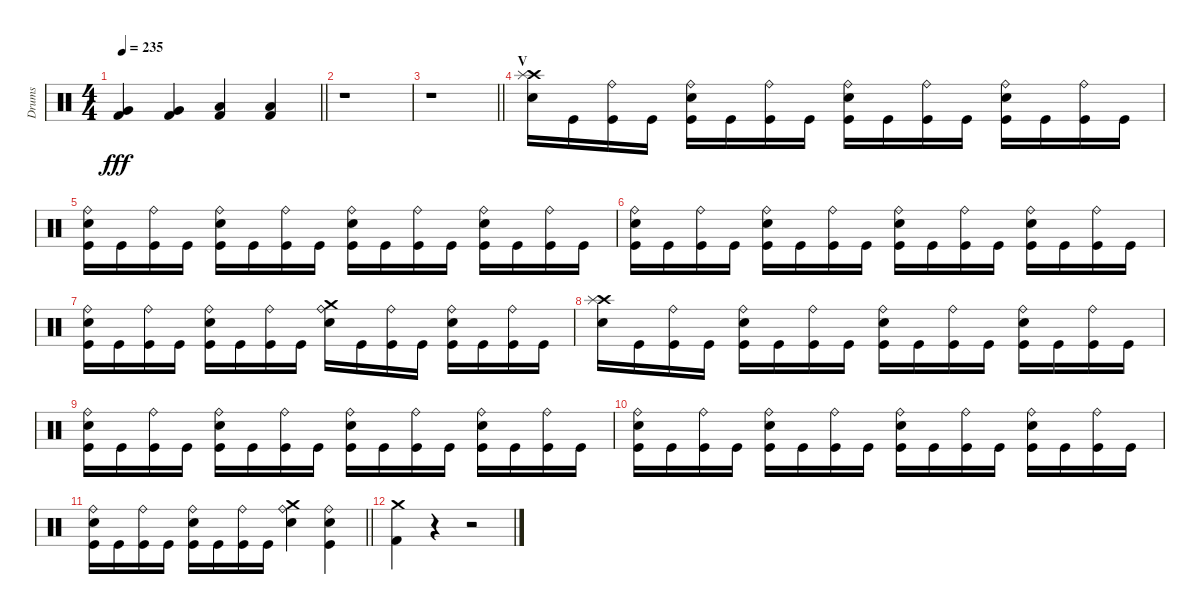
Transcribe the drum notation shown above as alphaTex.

\track ("Drums" "Drums") {instrument percussion}
\staff {score}
\articulation defaults
\ts (4 4)
\tempo 235
\clef neutral
\barLineRight lightlight
\ks c
("Very Low Tom (hit)" "Kick (hit) 2").4{dy fff} ("Very Low Tom (hit)" "Kick (hit) 2").4 ("Low Floor Tom (hit)" "Kick (hit) 2").4 ("Low Floor Tom (hit)" "Kick (hit) 2").4 |
r.1 |
\barLineRight lightlight
r.1 |
\section ("" "V")
("Crash high (hit)" "Electric Snare (hit)" "Splash (hit)").16 "Kick (hit)".16 ("Kick (hit)" "Ride (bell)").16 "Kick (hit)".16 ("Kick (hit)" "Electric Snare (hit)" "Ride (bell)").16 "Kick (hit)".16 ("Kick (hit)" "Ride (bell)").16 "Kick (hit)".16 ("Kick (hit)" "Electric Snare (hit)" "Ride (bell)").16 "Kick (hit)".16 ("Kick (hit)" "Ride (bell)").16 "Kick (hit)".16 ("Kick (hit)" "Electric Snare (hit)" "Ride (bell)").16 "Kick (hit)".16 ("Kick (hit)" "Ride (bell)").16 "Kick (hit)".16 |
("Kick (hit)" "Electric Snare (hit)" "Ride (bell)").16 "Kick (hit)".16 ("Kick (hit)" "Ride (bell)").16 "Kick (hit)".16 ("Kick (hit)" "Electric Snare (hit)" "Ride (bell)").16 "Kick (hit)".16 ("Kick (hit)" "Ride (bell)").16 "Kick (hit)".16 ("Kick (hit)" "Electric Snare (hit)" "Ride (bell)").16 "Kick (hit)".16 ("Kick (hit)" "Ride (bell)").16 "Kick (hit)".16 ("Kick (hit)" "Electric Snare (hit)" "Ride (bell)").16 "Kick (hit)".16 ("Kick (hit)" "Ride (bell)").16 "Kick (hit)".16 |
("Kick (hit)" "Electric Snare (hit)" "Ride (bell)").16 "Kick (hit)".16 ("Kick (hit)" "Ride (bell)").16 "Kick (hit)".16 ("Kick (hit)" "Electric Snare (hit)" "Ride (bell)").16 "Kick (hit)".16 ("Kick (hit)" "Ride (bell)").16 "Kick (hit)".16 ("Kick (hit)" "Electric Snare (hit)" "Ride (bell)").16 "Kick (hit)".16 ("Kick (hit)" "Ride (bell)").16 "Kick (hit)".16 ("Kick (hit)" "Electric Snare (hit)" "Ride (bell)").16 "Kick (hit)".16 ("Kick (hit)" "Ride (bell)").16 "Kick (hit)".16 |
("Kick (hit)" "Electric Snare (hit)" "Ride (bell)").16 "Kick (hit)".16 ("Kick (hit)" "Ride (bell)").16 "Kick (hit)".16 ("Kick (hit)" "Electric Snare (hit)" "Ride (bell)").16 "Kick (hit)".16 ("Kick (hit)" "Ride (bell)").16 "Kick (hit)".16 ("Crash medium (hit)" "Electric Snare (hit)" "Ride (bell)").16 "Kick (hit)".16 ("Kick (hit)" "Ride (bell)").16 "Kick (hit)".16 ("Kick (hit)" "Electric Snare (hit)" "Ride (bell)").16 "Kick (hit)".16 ("Kick (hit)" "Ride (bell)").16 "Kick (hit)".16 |
("Crash high (hit)" "Electric Snare (hit)" "Splash (hit)").16 "Kick (hit)".16 ("Kick (hit)" "Ride (bell)").16 "Kick (hit)".16 ("Kick (hit)" "Electric Snare (hit)" "Ride (bell)").16 "Kick (hit)".16 ("Kick (hit)" "Ride (bell)").16 "Kick (hit)".16 ("Kick (hit)" "Electric Snare (hit)" "Ride (bell)").16 "Kick (hit)".16 ("Kick (hit)" "Ride (bell)").16 "Kick (hit)".16 ("Kick (hit)" "Electric Snare (hit)" "Ride (bell)").16 "Kick (hit)".16 ("Kick (hit)" "Ride (bell)").16 "Kick (hit)".16 |
("Kick (hit)" "Electric Snare (hit)" "Ride (bell)").16 "Kick (hit)".16 ("Kick (hit)" "Ride (bell)").16 "Kick (hit)".16 ("Kick (hit)" "Electric Snare (hit)" "Ride (bell)").16 "Kick (hit)".16 ("Kick (hit)" "Ride (bell)").16 "Kick (hit)".16 ("Kick (hit)" "Electric Snare (hit)" "Ride (bell)").16 "Kick (hit)".16 ("Kick (hit)" "Ride (bell)").16 "Kick (hit)".16 ("Kick (hit)" "Electric Snare (hit)" "Ride (bell)").16 "Kick (hit)".16 ("Kick (hit)" "Ride (bell)").16 "Kick (hit)".16 |
("Kick (hit)" "Electric Snare (hit)" "Ride (bell)").16 "Kick (hit)".16 ("Kick (hit)" "Ride (bell)").16 "Kick (hit)".16 ("Kick (hit)" "Electric Snare (hit)" "Ride (bell)").16 "Kick (hit)".16 ("Kick (hit)" "Ride (bell)").16 "Kick (hit)".16 ("Kick (hit)" "Electric Snare (hit)" "Ride (bell)").16 "Kick (hit)".16 ("Kick (hit)" "Ride (bell)").16 "Kick (hit)".16 ("Kick (hit)" "Electric Snare (hit)" "Ride (bell)").16 "Kick (hit)".16 ("Kick (hit)" "Ride (bell)").16 "Kick (hit)".16 |
\barLineRight lightlight
("Kick (hit)" "Electric Snare (hit)" "Ride (bell)").16 "Kick (hit)".16 ("Kick (hit)" "Ride (bell)").16 "Kick (hit)".16 ("Kick (hit)" "Electric Snare (hit)" "Ride (bell)").16 "Kick (hit)".16 ("Kick (hit)" "Ride (bell)").16 "Kick (hit)".16 ("Crash medium (hit)" "Electric Snare (hit)" "Ride (bell)").4 ("Kick (hit)" "Electric Snare (hit)" "Ride (bell)").4 |
("Crash medium (hit)" "Kick (hit) 2").4 r.4 r.2
